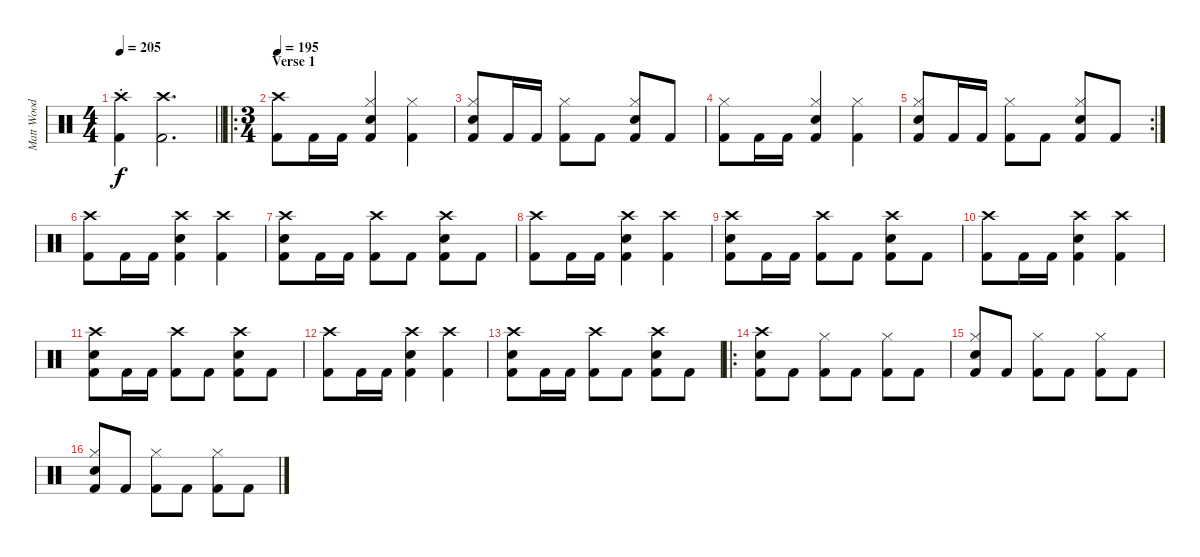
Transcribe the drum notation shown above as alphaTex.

\track ("Matt Wood" "Matt Wood") {instrument percussion}
\staff {score}
\articulation defaults
\ts (4 4)
\tempo 205
\clef neutral
\barLineRight lightlight
\ks c
("Crash high (hit)"{st} "Kick (hit) 2"{st}).4{dy f} ("Crash high (hit)" "Kick (hit) 2").2{d} |
\ro
\ts (3 4)
\section ("" "Verse 1")
\tempo 195
("Crash high (hit)" "Kick (hit) 2").8 "Kick (hit) 2".16 "Kick (hit) 2".16 ("Hi-Hat (closed)" "Snare (hit) 2" "Kick (hit) 2").4 ("Hi-Hat (closed)" "Kick (hit) 2").4 |
("Hi-Hat (closed)" "Snare (hit) 2" "Kick (hit) 2").8 "Kick (hit) 2".16 "Kick (hit) 2".16 ("Hi-Hat (closed)" "Kick (hit) 2").8 "Kick (hit) 2".8 ("Hi-Hat (closed)" "Snare (hit) 2" "Kick (hit) 2").8 "Kick (hit) 2".8 |
("Hi-Hat (closed)" "Kick (hit) 2").8 "Kick (hit) 2".16 "Kick (hit) 2".16 ("Hi-Hat (closed)" "Snare (hit) 2" "Kick (hit) 2").4 ("Hi-Hat (closed)" "Kick (hit) 2").4 |
\rc 2
("Hi-Hat (closed)" "Snare (hit) 2" "Kick (hit) 2").8 "Kick (hit) 2".16 "Kick (hit) 2".16 ("Hi-Hat (closed)" "Kick (hit) 2").8 "Kick (hit) 2".8 ("Hi-Hat (closed)" "Snare (hit) 2" "Kick (hit) 2").8 "Kick (hit) 2".8 |
("Crash high (hit)" "Kick (hit) 2").8 "Kick (hit) 2".16 "Kick (hit) 2".16 ("Crash high (hit)" "Snare (hit) 2" "Kick (hit) 2").4 ("Crash high (hit)" "Kick (hit) 2").4 |
("Crash high (hit)" "Snare (hit) 2" "Kick (hit) 2").8 "Kick (hit) 2".16 "Kick (hit) 2".16 ("Crash high (hit)" "Kick (hit) 2").8 "Kick (hit) 2".8 ("Crash high (hit)" "Snare (hit) 2" "Kick (hit) 2").8 "Kick (hit) 2".8 |
("Crash high (hit)" "Kick (hit) 2").8 "Kick (hit) 2".16 "Kick (hit) 2".16 ("Crash high (hit)" "Snare (hit) 2" "Kick (hit) 2").4 ("Crash high (hit)" "Kick (hit) 2").4 |
("Crash high (hit)" "Snare (hit) 2" "Kick (hit) 2").8 "Kick (hit) 2".16 "Kick (hit) 2".16 ("Crash high (hit)" "Kick (hit) 2").8 "Kick (hit) 2".8 ("Crash high (hit)" "Snare (hit) 2" "Kick (hit) 2").8 "Kick (hit) 2".8 |
("Crash high (hit)" "Kick (hit) 2").8 "Kick (hit) 2".16 "Kick (hit) 2".16 ("Crash high (hit)" "Snare (hit) 2" "Kick (hit) 2").4 ("Crash high (hit)" "Kick (hit) 2").4 |
("Crash high (hit)" "Snare (hit) 2" "Kick (hit) 2").8 "Kick (hit) 2".16 "Kick (hit) 2".16 ("Crash high (hit)" "Kick (hit) 2").8 "Kick (hit) 2".8 ("Crash high (hit)" "Snare (hit) 2" "Kick (hit) 2").8 "Kick (hit) 2".8 |
("Crash high (hit)" "Kick (hit) 2").8 "Kick (hit) 2".16 "Kick (hit) 2".16 ("Crash high (hit)" "Snare (hit) 2" "Kick (hit) 2").4 ("Crash high (hit)" "Kick (hit) 2").4 |
("Crash high (hit)" "Snare (hit) 2" "Kick (hit) 2").8 "Kick (hit) 2".16 "Kick (hit) 2".16 ("Crash high (hit)" "Kick (hit) 2").8 "Kick (hit) 2".8 ("Crash high (hit)" "Snare (hit) 2" "Kick (hit) 2").8 "Kick (hit) 2".8 |
\ro
("Crash high (hit)" "Snare (hit) 2" "Kick (hit) 2").8 "Kick (hit) 2".8 ("Hi-Hat (closed)" "Kick (hit) 2").8 "Kick (hit) 2".8 ("Hi-Hat (closed)" "Kick (hit) 2").8 "Kick (hit) 2".8 |
("Hi-Hat (closed)" "Snare (hit) 2" "Kick (hit) 2").8 "Kick (hit) 2".8 ("Hi-Hat (closed)" "Kick (hit) 2").8 "Kick (hit) 2".8 ("Hi-Hat (closed)" "Kick (hit) 2").8 "Kick (hit) 2".8 |
("Hi-Hat (closed)" "Snare (hit) 2" "Kick (hit) 2").8 "Kick (hit) 2".8 ("Hi-Hat (closed)" "Kick (hit) 2").8 "Kick (hit) 2".8 ("Hi-Hat (closed)" "Kick (hit) 2").8 "Kick (hit) 2".8
